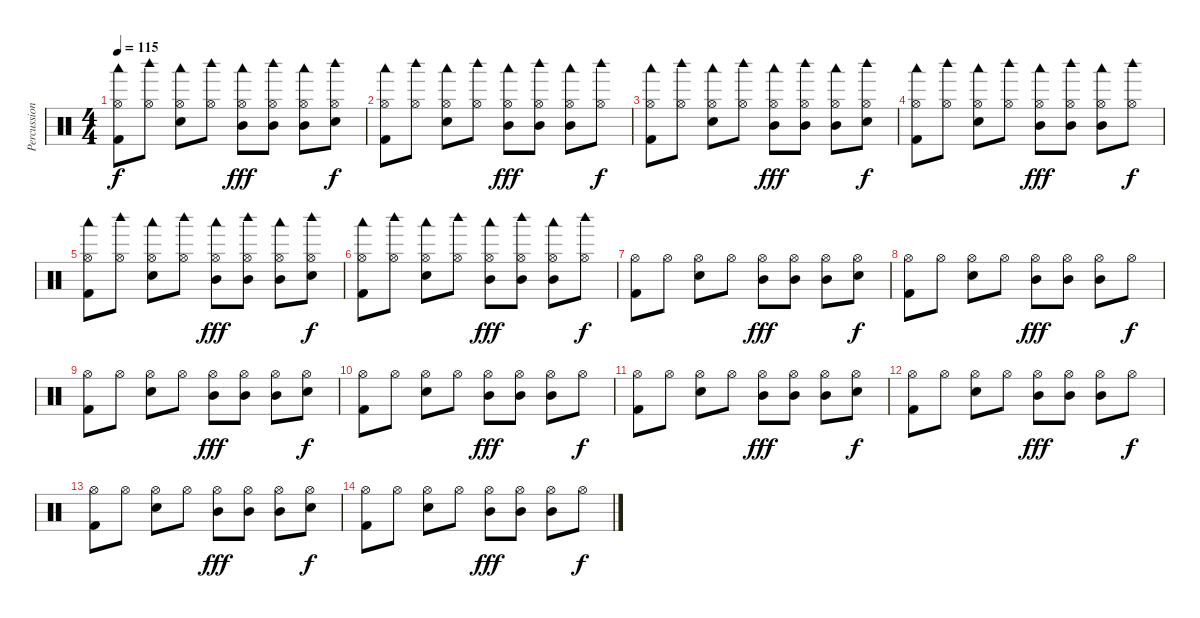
\track ("Percussions" "Percussion") {instrument percussion}
\staff {score}
\articulation defaults
\ts (4 4)
\tempo 115
\clef neutral
\ks c
("Hi-Hat (open)" "Kick (hit) 2" "Woodblock low (hit)").8{dy f} ("Hi-Hat (open)" "Woodblock high (hit)").8 ("Hi-Hat (open)" "Electric Snare (hit)" "Woodblock low (hit)").8 ("Hi-Hat (open)" "Woodblock high (hit)").8 ("Hi-Hat (open)" "Mid Tom (hit)" "Woodblock low (hit)").8{dy fff} ("Hi-Hat (open)" "Mid Tom (hit)" "Woodblock high (hit)").8 ("Hi-Hat (open)" "Mid Tom (hit)" "Woodblock low (hit)").8 ("Hi-Hat (open)" "Electric Snare (hit)" "Woodblock high (hit)").8{dy f} |
("Hi-Hat (open)" "Kick (hit) 2" "Woodblock low (hit)").8 ("Hi-Hat (open)" "Woodblock high (hit)").8 ("Hi-Hat (open)" "Electric Snare (hit)" "Woodblock low (hit)").8 ("Hi-Hat (open)" "Woodblock high (hit)").8 ("Hi-Hat (open)" "Mid Tom (hit)" "Woodblock low (hit)").8{dy fff} ("Hi-Hat (open)" "Mid Tom (hit)" "Woodblock high (hit)").8 ("Hi-Hat (open)" "Mid Tom (hit)" "Woodblock low (hit)").8 ("Hi-Hat (open)" "Woodblock high (hit)").8{dy f} |
("Hi-Hat (open)" "Kick (hit) 2" "Woodblock low (hit)").8 ("Hi-Hat (open)" "Woodblock high (hit)").8 ("Hi-Hat (open)" "Electric Snare (hit)" "Woodblock low (hit)").8 ("Hi-Hat (open)" "Woodblock high (hit)").8 ("Hi-Hat (open)" "Mid Tom (hit)" "Woodblock low (hit)").8{dy fff} ("Hi-Hat (open)" "Mid Tom (hit)" "Woodblock high (hit)").8 ("Hi-Hat (open)" "Mid Tom (hit)" "Woodblock low (hit)").8 ("Hi-Hat (open)" "Electric Snare (hit)" "Woodblock high (hit)").8{dy f} |
("Hi-Hat (open)" "Kick (hit) 2" "Woodblock low (hit)").8 ("Hi-Hat (open)" "Woodblock high (hit)").8 ("Hi-Hat (open)" "Electric Snare (hit)" "Woodblock low (hit)").8 ("Hi-Hat (open)" "Woodblock high (hit)").8 ("Hi-Hat (open)" "Mid Tom (hit)" "Woodblock low (hit)").8{dy fff} ("Hi-Hat (open)" "Mid Tom (hit)" "Woodblock high (hit)").8 ("Hi-Hat (open)" "Mid Tom (hit)" "Woodblock low (hit)").8 ("Hi-Hat (open)" "Woodblock high (hit)").8{dy f} |
("Hi-Hat (open)" "Kick (hit) 2" "Woodblock low (hit)").8 ("Hi-Hat (open)" "Woodblock high (hit)").8 ("Hi-Hat (open)" "Electric Snare (hit)" "Woodblock low (hit)").8 ("Hi-Hat (open)" "Woodblock high (hit)").8 ("Hi-Hat (open)" "Mid Tom (hit)" "Woodblock low (hit)").8{dy fff} ("Hi-Hat (open)" "Mid Tom (hit)" "Woodblock high (hit)").8 ("Hi-Hat (open)" "Mid Tom (hit)" "Woodblock low (hit)").8 ("Hi-Hat (open)" "Electric Snare (hit)" "Woodblock high (hit)").8{dy f} |
("Hi-Hat (open)" "Kick (hit) 2" "Woodblock low (hit)").8 ("Hi-Hat (open)" "Woodblock high (hit)").8 ("Hi-Hat (open)" "Electric Snare (hit)" "Woodblock low (hit)").8 ("Hi-Hat (open)" "Woodblock high (hit)").8 ("Hi-Hat (open)" "Mid Tom (hit)" "Woodblock low (hit)").8{dy fff} ("Hi-Hat (open)" "Mid Tom (hit)" "Woodblock high (hit)").8 ("Hi-Hat (open)" "Mid Tom (hit)" "Woodblock low (hit)").8 ("Hi-Hat (open)" "Woodblock high (hit)").8{dy f} |
("Hi-Hat (open)" "Kick (hit) 2").8 "Hi-Hat (open)".8 ("Hi-Hat (open)" "Electric Snare (hit)").8 "Hi-Hat (open)".8 ("Hi-Hat (open)" "Mid Tom (hit)").8{dy fff} ("Hi-Hat (open)" "Mid Tom (hit)").8 ("Hi-Hat (open)" "Mid Tom (hit)").8 ("Hi-Hat (open)" "Electric Snare (hit)").8{dy f} |
("Hi-Hat (open)" "Kick (hit) 2").8 "Hi-Hat (open)".8 ("Hi-Hat (open)" "Electric Snare (hit)").8 "Hi-Hat (open)".8 ("Hi-Hat (open)" "Mid Tom (hit)").8{dy fff} ("Hi-Hat (open)" "Mid Tom (hit)").8 ("Hi-Hat (open)" "Mid Tom (hit)").8 "Hi-Hat (open)".8{dy f} |
("Hi-Hat (open)" "Kick (hit) 2").8 "Hi-Hat (open)".8 ("Hi-Hat (open)" "Electric Snare (hit)").8 "Hi-Hat (open)".8 ("Hi-Hat (open)" "Mid Tom (hit)").8{dy fff} ("Hi-Hat (open)" "Mid Tom (hit)").8 ("Hi-Hat (open)" "Mid Tom (hit)").8 ("Hi-Hat (open)" "Electric Snare (hit)").8{dy f} |
("Hi-Hat (open)" "Kick (hit) 2").8 "Hi-Hat (open)".8 ("Hi-Hat (open)" "Electric Snare (hit)").8 "Hi-Hat (open)".8 ("Hi-Hat (open)" "Mid Tom (hit)").8{dy fff} ("Hi-Hat (open)" "Mid Tom (hit)").8 ("Hi-Hat (open)" "Mid Tom (hit)").8 "Hi-Hat (open)".8{dy f} |
("Hi-Hat (open)" "Kick (hit) 2").8 "Hi-Hat (open)".8 ("Hi-Hat (open)" "Electric Snare (hit)").8 "Hi-Hat (open)".8 ("Hi-Hat (open)" "Mid Tom (hit)").8{dy fff} ("Hi-Hat (open)" "Mid Tom (hit)").8 ("Hi-Hat (open)" "Mid Tom (hit)").8 ("Hi-Hat (open)" "Electric Snare (hit)").8{dy f} |
("Hi-Hat (open)" "Kick (hit) 2").8 "Hi-Hat (open)".8 ("Hi-Hat (open)" "Electric Snare (hit)").8 "Hi-Hat (open)".8 ("Hi-Hat (open)" "Mid Tom (hit)").8{dy fff} ("Hi-Hat (open)" "Mid Tom (hit)").8 ("Hi-Hat (open)" "Mid Tom (hit)").8 "Hi-Hat (open)".8{dy f} |
("Hi-Hat (open)" "Kick (hit) 2").8 "Hi-Hat (open)".8 ("Hi-Hat (open)" "Electric Snare (hit)").8 "Hi-Hat (open)".8 ("Hi-Hat (open)" "Mid Tom (hit)").8{dy fff} ("Hi-Hat (open)" "Mid Tom (hit)").8 ("Hi-Hat (open)" "Mid Tom (hit)").8 ("Hi-Hat (open)" "Electric Snare (hit)").8{dy f} |
("Hi-Hat (open)" "Kick (hit) 2").8 "Hi-Hat (open)".8 ("Hi-Hat (open)" "Electric Snare (hit)").8 "Hi-Hat (open)".8 ("Hi-Hat (open)" "Mid Tom (hit)").8{dy fff} ("Hi-Hat (open)" "Mid Tom (hit)").8 ("Hi-Hat (open)" "Mid Tom (hit)").8 "Hi-Hat (open)".8{dy f}
